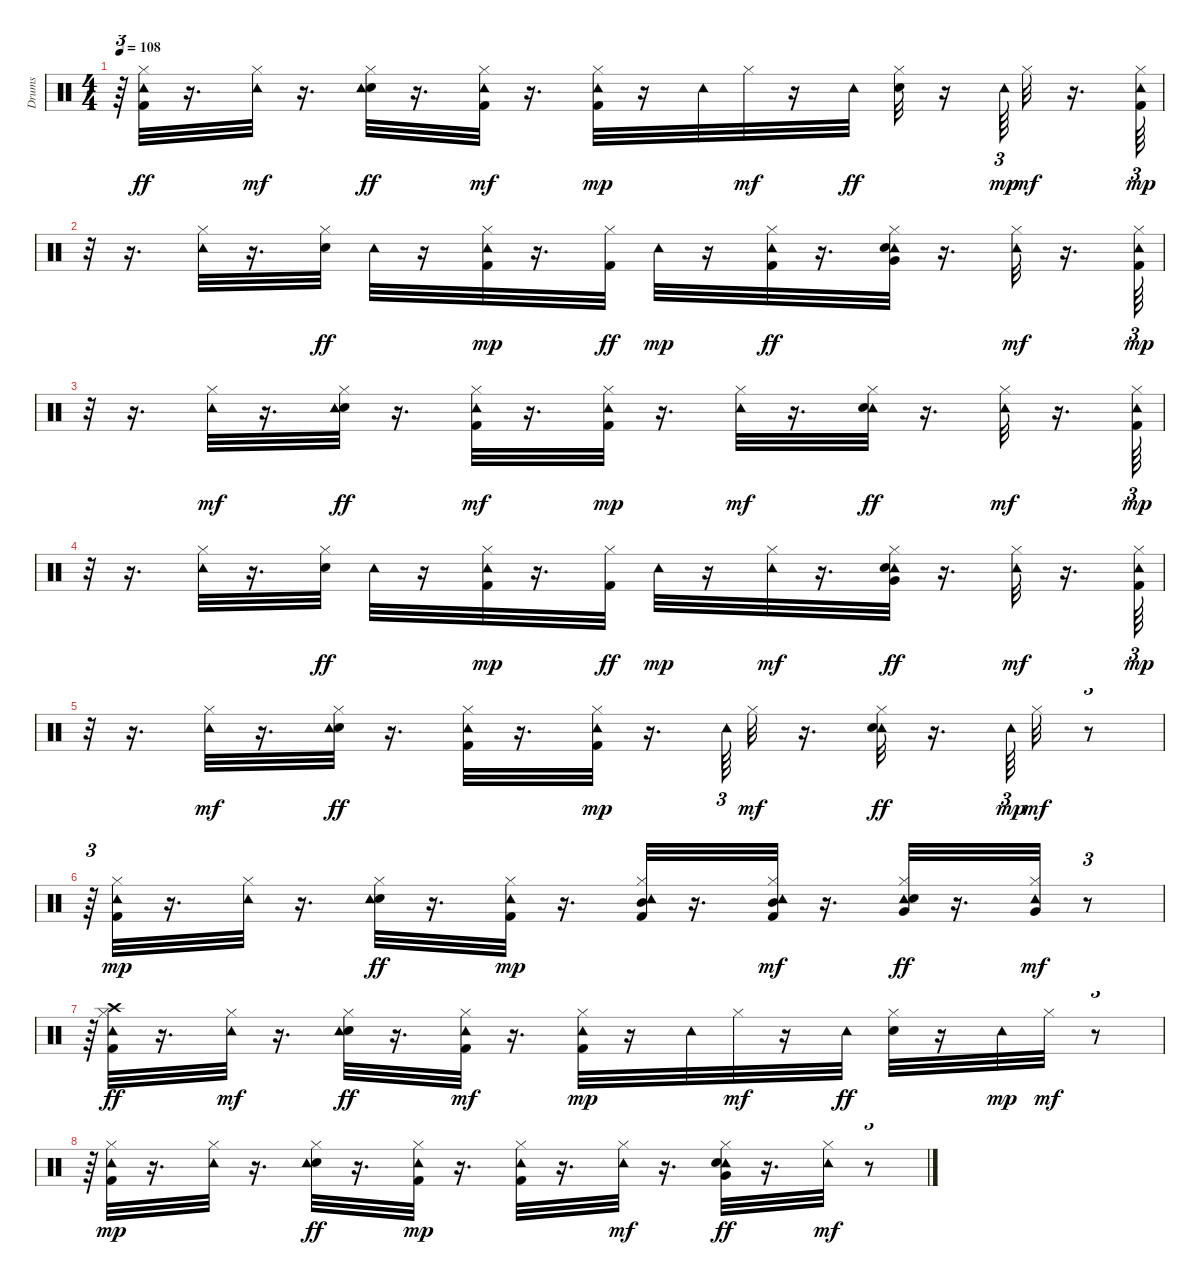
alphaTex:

\track ("Drums               " "Drums     ") {instrument percussion}
\staff {score}
\articulation defaults
\ts (4 4)
\tempo 108
\clef neutral
\ks c
r.64{tu (3 2) dy mf} ("Kick (hit) 2" "Tambourine (hit)" "Hi-Hat (closed)").32{dy ff} r.16{d} ("Tambourine (hit)" "Hi-Hat (closed)").32{dy mf} r.16{d} ("Hi-Hat (closed)" "Snare (hit) 2" "Tambourine (hit)").32{dy ff} r.16{d} ("Tambourine (hit)" "Kick (hit) 2" "Hi-Hat (closed)").32{dy mf} r.16{d} ("Kick (hit) 2" "Hi-Hat (closed)" "Tambourine (hit)").32{dy mp} r.16 "Tambourine (hit)".32 "Hi-Hat (closed)".32{dy mf} r.16 "Tambourine (hit)".32{dy ff} ("Snare (hit) 2" "Hi-Hat (closed)").32 r.16 "Tambourine (hit)".64{tu (3 2) dy mp} "Hi-Hat (closed)".32{dy mf} r.16{d} ("Kick (hit) 2" "Hi-Hat (closed)" "Tambourine (hit)").64{tu (3 2) dy mp} |
r.32{tu (3 2)} r.16{d} ("Hi-Hat (closed)" "Tambourine (hit)").32 r.16{d} ("Snare (hit) 2" "Hi-Hat (closed)").32{dy ff} "Tambourine (hit)".32 r.16 ("Kick (hit) 2" "Hi-Hat (closed)" "Tambourine (hit)").32{dy mp} r.16{d} ("Kick (hit) 2" "Hi-Hat (closed)").32{dy ff} "Tambourine (hit)".32{dy mp} r.16 ("Tambourine (hit)" "Hi-Hat (closed)" "Kick (hit) 2").32{dy ff} r.16{d} ("Tambourine (hit)" "Snare (hit) 2" "Very Low Tom (hit)" "Hi-Hat (closed)").32 r.16{d} ("Tambourine (hit)" "Hi-Hat (closed)").32{dy mf} r.16{d} ("Kick (hit) 2" "Hi-Hat (closed)" "Tambourine (hit)").64{tu (3 2) dy mp} |
r.32{tu (3 2)} r.16{d} ("Tambourine (hit)" "Hi-Hat (closed)").32{dy mf} r.16{d} ("Snare (hit) 2" "Hi-Hat (closed)" "Tambourine (hit)").32{dy ff} r.16{d} ("Tambourine (hit)" "Kick (hit) 2" "Hi-Hat (closed)").32{dy mf} r.16{d} ("Kick (hit) 2" "Hi-Hat (closed)" "Tambourine (hit)").32{dy mp} r.16{d} ("Tambourine (hit)" "Hi-Hat (closed)").32{dy mf} r.16{d} ("Tambourine (hit)" "Snare (hit) 2" "Hi-Hat (closed)").32{dy ff} r.16{d} ("Tambourine (hit)" "Hi-Hat (closed)").32{dy mf} r.16{d} ("Hi-Hat (closed)" "Kick (hit) 2" "Tambourine (hit)").64{tu (3 2) dy mp} |
r.32{tu (3 2)} r.16{d} ("Hi-Hat (closed)" "Tambourine (hit)").32 r.16{d} ("Snare (hit) 2" "Hi-Hat (closed)").32{dy ff} "Tambourine (hit)".32 r.16 ("Kick (hit) 2" "Hi-Hat (closed)" "Tambourine (hit)").32{dy mp} r.16{d} ("Kick (hit) 2" "Hi-Hat (closed)").32{dy ff} "Tambourine (hit)".32{dy mp} r.16 ("Tambourine (hit)" "Hi-Hat (closed)").32{dy mf} r.16{d} ("Tambourine (hit)" "Snare (hit) 2" "Very Low Tom (hit)" "Hi-Hat (closed)").32{dy ff} r.16{d} ("Tambourine (hit)" "Hi-Hat (closed)").32{dy mf} r.16{d} ("Kick (hit) 2" "Hi-Hat (closed)" "Tambourine (hit)").64{tu (3 2) dy mp} |
r.32{tu (3 2)} r.16{d} ("Tambourine (hit)" "Hi-Hat (closed)").32{dy mf} r.16{d} ("Snare (hit) 2" "Hi-Hat (closed)" "Tambourine (hit)").32{dy ff} r.16{d} ("Hi-Hat (closed)" "Tambourine (hit)" "Kick (hit) 2").32 r.16{d} ("Kick (hit) 2" "Hi-Hat (closed)" "Tambourine (hit)").32{dy mp} r.16{d} "Tambourine (hit)".64{tu (3 2)} "Hi-Hat (closed)".32{dy mf} r.16{d} ("Tambourine (hit)" "Snare (hit) 2" "Hi-Hat (closed)").32{dy ff} r.16{d} "Tambourine (hit)".64{tu (3 2) dy mp} "Hi-Hat (closed)".32{dy mf} r.8{tu (3 2)} |
r.64{tu (3 2)} ("Kick (hit) 2" "Hi-Hat (closed)" "Tambourine (hit)").32{dy mp} r.16{d} ("Hi-Hat (closed)" "Tambourine (hit)").32 r.16{d} ("Snare (hit) 2" "Hi-Hat (closed)" "Tambourine (hit)").32{dy ff} r.16{d} ("Kick (hit) 2" "Hi-Hat (closed)" "Tambourine (hit)").32{dy mp} r.16{d} ("Kick (hit) 2" "Mid Tom (hit)" "Hi-Hat (closed)" "Tambourine (hit)").32 r.16{d} ("Tambourine (hit)" "Kick (hit) 2" "Hi-Hat (closed)" "Mid Tom (hit)").32{dy mf} r.16{d} ("Tambourine (hit)" "Hi-Hat (closed)" "Snare (hit) 2" "Very Low Tom (hit)").32{dy ff} r.16{d} ("Tambourine (hit)" "Very Low Tom (hit)" "Hi-Hat (closed)").32{dy mf} r.8{tu (3 2)} |
r.64{tu (3 2)} ("Kick (hit) 2" "Crash high (hit)" "Tambourine (hit)" "Hi-Hat (closed)").32{dy ff} r.16{d} ("Tambourine (hit)" "Hi-Hat (closed)").32{dy mf} r.16{d} ("Snare (hit) 2" "Hi-Hat (closed)" "Tambourine (hit)").32{dy ff} r.16{d} ("Tambourine (hit)" "Kick (hit) 2" "Hi-Hat (closed)").32{dy mf} r.16{d} ("Kick (hit) 2" "Hi-Hat (closed)" "Tambourine (hit)").32{dy mp} r.16 "Tambourine (hit)".32 "Hi-Hat (closed)".32{dy mf} r.16 "Tambourine (hit)".32{dy ff} ("Snare (hit) 2" "Hi-Hat (closed)").32 r.16 "Tambourine (hit)".32{dy mp} "Hi-Hat (closed)".32{dy mf} r.8{tu (3 2)} |
r.64{tu (3 2)} ("Kick (hit) 2" "Hi-Hat (closed)" "Tambourine (hit)").32{dy mp} r.16{d} ("Hi-Hat (closed)" "Tambourine (hit)").32 r.16{d} ("Snare (hit) 2" "Hi-Hat (closed)" "Tambourine (hit)").32{dy ff} r.16{d} ("Kick (hit) 2" "Hi-Hat (closed)" "Tambourine (hit)").32{dy mp} r.16{d} ("Kick (hit) 2" "Hi-Hat (closed)" "Tambourine (hit)").32 r.16{d} ("Tambourine (hit)" "Hi-Hat (closed)").32{dy mf} r.16{d} ("Tambourine (hit)" "Snare (hit) 2" "Very Low Tom (hit)" "Hi-Hat (closed)").32{dy ff} r.16{d} ("Tambourine (hit)" "Hi-Hat (closed)").32{dy mf} r.8{tu (3 2)}
